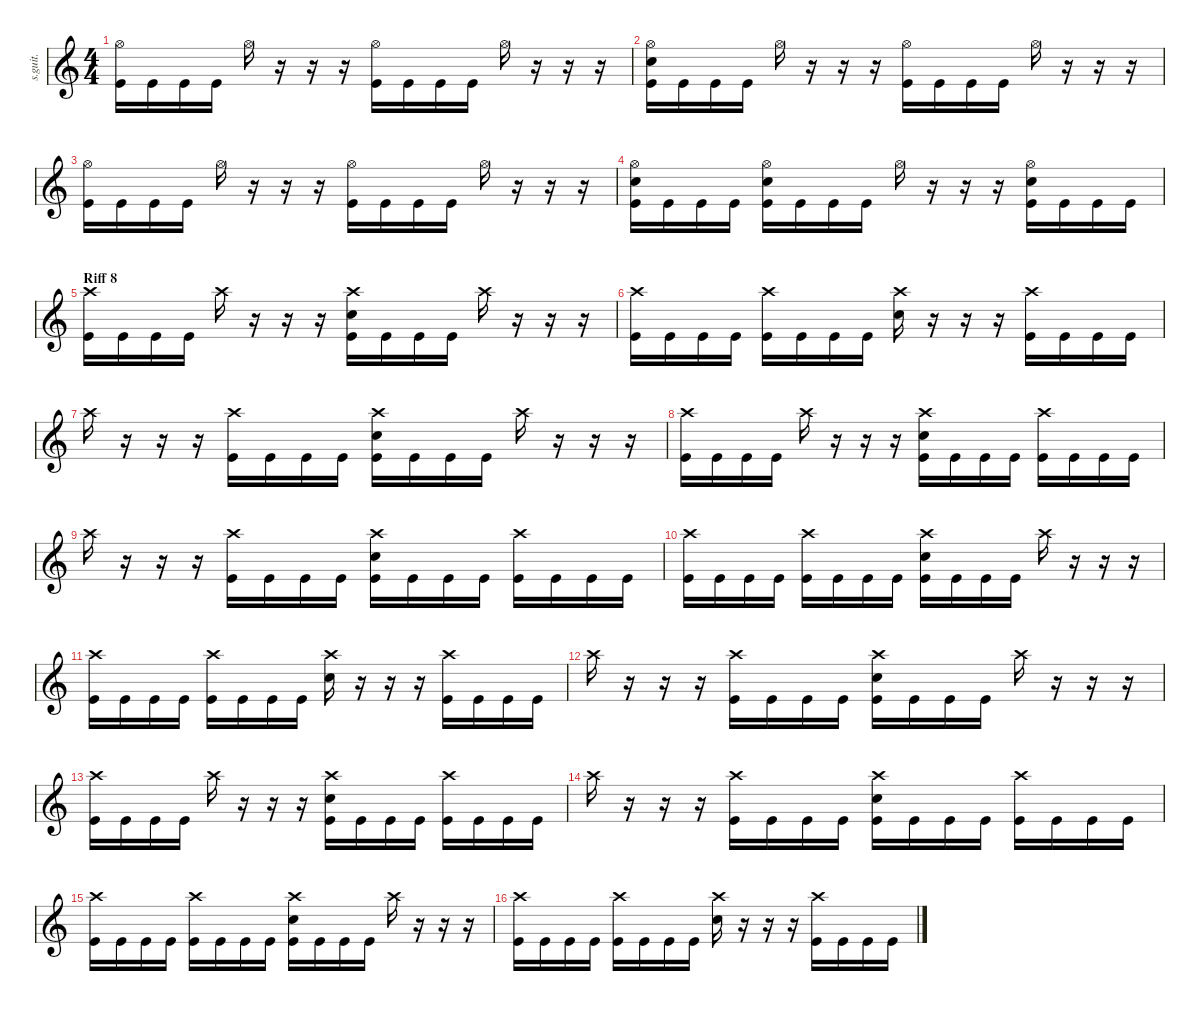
\defaultSystemsLayout 4
\hideDynamics
\bracketExtendMode nobrackets
\track ("Drumkit" "s.guit.") {instrument percussion}
\staff {score}
\articulation defaults
\ts (4 4)
\tempo (133 hide)
\clef g2
\ks c
("Hi-Hat (open)" "Kick (hit)").16{lyrics (0 "") lyrics (1 "") lyrics (2 "") lyrics (3 "") lyrics (4 "") dy f} "Kick (hit)".16{lyrics (0 "") lyrics (1 "") lyrics (2 "") lyrics (3 "") lyrics (4 "")} "Kick (hit)".16{lyrics (0 "") lyrics (1 "") lyrics (2 "") lyrics (3 "") lyrics (4 "")} "Kick (hit)".16{lyrics (0 "") lyrics (1 "") lyrics (2 "") lyrics (3 "") lyrics (4 "")} "Hi-Hat (open)".16{lyrics (0 "") lyrics (1 "") lyrics (2 "") lyrics (3 "") lyrics (4 "")} r.16 r.16 r.16 ("Hi-Hat (open)" "Kick (hit)").16{lyrics (0 "") lyrics (1 "") lyrics (2 "") lyrics (3 "") lyrics (4 "")} "Kick (hit)".16{lyrics (0 "") lyrics (1 "") lyrics (2 "") lyrics (3 "") lyrics (4 "")} "Kick (hit)".16{lyrics (0 "") lyrics (1 "") lyrics (2 "") lyrics (3 "") lyrics (4 "")} "Kick (hit)".16{lyrics (0 "") lyrics (1 "") lyrics (2 "") lyrics (3 "") lyrics (4 "")} "Hi-Hat (open)".16{lyrics (0 "") lyrics (1 "") lyrics (2 "") lyrics (3 "") lyrics (4 "")} r.16 r.16 r.16 |
("Hi-Hat (open)" "Snare (hit) 2" "Kick (hit)").16{lyrics (0 "") lyrics (1 "") lyrics (2 "") lyrics (3 "") lyrics (4 "")} "Kick (hit)".16{lyrics (0 "") lyrics (1 "") lyrics (2 "") lyrics (3 "") lyrics (4 "")} "Kick (hit)".16{lyrics (0 "") lyrics (1 "") lyrics (2 "") lyrics (3 "") lyrics (4 "")} "Kick (hit)".16{lyrics (0 "") lyrics (1 "") lyrics (2 "") lyrics (3 "") lyrics (4 "")} "Hi-Hat (open)".16{lyrics (0 "") lyrics (1 "") lyrics (2 "") lyrics (3 "") lyrics (4 "")} r.16 r.16 r.16 ("Hi-Hat (open)" "Kick (hit)").16{lyrics (0 "") lyrics (1 "") lyrics (2 "") lyrics (3 "") lyrics (4 "")} "Kick (hit)".16{lyrics (0 "") lyrics (1 "") lyrics (2 "") lyrics (3 "") lyrics (4 "")} "Kick (hit)".16{lyrics (0 "") lyrics (1 "") lyrics (2 "") lyrics (3 "") lyrics (4 "")} "Kick (hit)".16{lyrics (0 "") lyrics (1 "") lyrics (2 "") lyrics (3 "") lyrics (4 "")} "Hi-Hat (open)".16{lyrics (0 "") lyrics (1 "") lyrics (2 "") lyrics (3 "") lyrics (4 "")} r.16 r.16 r.16 |
("Hi-Hat (open)" "Kick (hit)").16{lyrics (0 "") lyrics (1 "") lyrics (2 "") lyrics (3 "") lyrics (4 "")} "Kick (hit)".16{lyrics (0 "") lyrics (1 "") lyrics (2 "") lyrics (3 "") lyrics (4 "")} "Kick (hit)".16{lyrics (0 "") lyrics (1 "") lyrics (2 "") lyrics (3 "") lyrics (4 "")} "Kick (hit)".16{lyrics (0 "") lyrics (1 "") lyrics (2 "") lyrics (3 "") lyrics (4 "")} "Hi-Hat (open)".16{lyrics (0 "") lyrics (1 "") lyrics (2 "") lyrics (3 "") lyrics (4 "")} r.16 r.16 r.16 ("Hi-Hat (open)" "Kick (hit)").16{lyrics (0 "") lyrics (1 "") lyrics (2 "") lyrics (3 "") lyrics (4 "")} "Kick (hit)".16{lyrics (0 "") lyrics (1 "") lyrics (2 "") lyrics (3 "") lyrics (4 "")} "Kick (hit)".16{lyrics (0 "") lyrics (1 "") lyrics (2 "") lyrics (3 "") lyrics (4 "")} "Kick (hit)".16{lyrics (0 "") lyrics (1 "") lyrics (2 "") lyrics (3 "") lyrics (4 "")} "Hi-Hat (open)".16{lyrics (0 "") lyrics (1 "") lyrics (2 "") lyrics (3 "") lyrics (4 "")} r.16 r.16 r.16 |
("Hi-Hat (open)" "Snare (hit) 2" "Kick (hit)").16{lyrics (0 "") lyrics (1 "") lyrics (2 "") lyrics (3 "") lyrics (4 "")} "Kick (hit)".16{lyrics (0 "") lyrics (1 "") lyrics (2 "") lyrics (3 "") lyrics (4 "")} "Kick (hit)".16{lyrics (0 "") lyrics (1 "") lyrics (2 "") lyrics (3 "") lyrics (4 "")} "Kick (hit)".16{lyrics (0 "") lyrics (1 "") lyrics (2 "") lyrics (3 "") lyrics (4 "")} ("Hi-Hat (open)" "Snare (hit) 2" "Kick (hit)").16{lyrics (0 "") lyrics (1 "") lyrics (2 "") lyrics (3 "") lyrics (4 "")} "Kick (hit)".16{lyrics (0 "") lyrics (1 "") lyrics (2 "") lyrics (3 "") lyrics (4 "")} "Kick (hit)".16{lyrics (0 "") lyrics (1 "") lyrics (2 "") lyrics (3 "") lyrics (4 "")} "Kick (hit)".16{lyrics (0 "") lyrics (1 "") lyrics (2 "") lyrics (3 "") lyrics (4 "")} "Hi-Hat (open)".16{lyrics (0 "") lyrics (1 "") lyrics (2 "") lyrics (3 "") lyrics (4 "")} r.16 r.16 r.16 ("Hi-Hat (open)" "Snare (hit) 2" "Kick (hit)").16{lyrics (0 "") lyrics (1 "") lyrics (2 "") lyrics (3 "") lyrics (4 "")} "Kick (hit)".16{lyrics (0 "") lyrics (1 "") lyrics (2 "") lyrics (3 "") lyrics (4 "")} "Kick (hit)".16{lyrics (0 "") lyrics (1 "") lyrics (2 "") lyrics (3 "") lyrics (4 "")} "Kick (hit)".16{lyrics (0 "") lyrics (1 "") lyrics (2 "") lyrics (3 "") lyrics (4 "")} |
\section ("" "Riff 8")
("Crash high (hit)" "Kick (hit)").16{lyrics (0 "") lyrics (1 "") lyrics (2 "") lyrics (3 "") lyrics (4 "")} "Kick (hit)".16{lyrics (0 "") lyrics (1 "") lyrics (2 "") lyrics (3 "") lyrics (4 "")} "Kick (hit)".16{lyrics (0 "") lyrics (1 "") lyrics (2 "") lyrics (3 "") lyrics (4 "")} "Kick (hit)".16{lyrics (0 "") lyrics (1 "") lyrics (2 "") lyrics (3 "") lyrics (4 "")} "Crash high (hit)".16{lyrics (0 "") lyrics (1 "") lyrics (2 "") lyrics (3 "") lyrics (4 "")} r.16 r.16 r.16 ("Crash high (hit)" "Snare (hit) 2" "Kick (hit)").16{lyrics (0 "") lyrics (1 "") lyrics (2 "") lyrics (3 "") lyrics (4 "")} "Kick (hit)".16{lyrics (0 "") lyrics (1 "") lyrics (2 "") lyrics (3 "") lyrics (4 "")} "Kick (hit)".16{lyrics (0 "") lyrics (1 "") lyrics (2 "") lyrics (3 "") lyrics (4 "")} "Kick (hit)".16{lyrics (0 "") lyrics (1 "") lyrics (2 "") lyrics (3 "") lyrics (4 "")} "Crash high (hit)".16{lyrics (0 "") lyrics (1 "") lyrics (2 "") lyrics (3 "") lyrics (4 "")} r.16 r.16 r.16 |
("Crash high (hit)" "Kick (hit)").16{lyrics (0 "") lyrics (1 "") lyrics (2 "") lyrics (3 "") lyrics (4 "")} "Kick (hit)".16{lyrics (0 "") lyrics (1 "") lyrics (2 "") lyrics (3 "") lyrics (4 "")} "Kick (hit)".16{lyrics (0 "") lyrics (1 "") lyrics (2 "") lyrics (3 "") lyrics (4 "")} "Kick (hit)".16{lyrics (0 "") lyrics (1 "") lyrics (2 "") lyrics (3 "") lyrics (4 "")} ("Crash high (hit)" "Kick (hit)").16{lyrics (0 "") lyrics (1 "") lyrics (2 "") lyrics (3 "") lyrics (4 "")} "Kick (hit)".16{lyrics (0 "") lyrics (1 "") lyrics (2 "") lyrics (3 "") lyrics (4 "")} "Kick (hit)".16{lyrics (0 "") lyrics (1 "") lyrics (2 "") lyrics (3 "") lyrics (4 "")} "Kick (hit)".16{lyrics (0 "") lyrics (1 "") lyrics (2 "") lyrics (3 "") lyrics (4 "")} ("Crash high (hit)" "Snare (hit) 2").16{lyrics (0 "") lyrics (1 "") lyrics (2 "") lyrics (3 "") lyrics (4 "")} r.16 r.16 r.16 ("Crash high (hit)" "Kick (hit)").16{lyrics (0 "") lyrics (1 "") lyrics (2 "") lyrics (3 "") lyrics (4 "")} "Kick (hit)".16{lyrics (0 "") lyrics (1 "") lyrics (2 "") lyrics (3 "") lyrics (4 "")} "Kick (hit)".16{lyrics (0 "") lyrics (1 "") lyrics (2 "") lyrics (3 "") lyrics (4 "")} "Kick (hit)".16{lyrics (0 "") lyrics (1 "") lyrics (2 "") lyrics (3 "") lyrics (4 "")} |
"Crash high (hit)".16{lyrics (0 "") lyrics (1 "") lyrics (2 "") lyrics (3 "") lyrics (4 "")} r.16 r.16 r.16 ("Crash high (hit)" "Kick (hit)").16{lyrics (0 "") lyrics (1 "") lyrics (2 "") lyrics (3 "") lyrics (4 "")} "Kick (hit)".16{lyrics (0 "") lyrics (1 "") lyrics (2 "") lyrics (3 "") lyrics (4 "")} "Kick (hit)".16{lyrics (0 "") lyrics (1 "") lyrics (2 "") lyrics (3 "") lyrics (4 "")} "Kick (hit)".16{lyrics (0 "") lyrics (1 "") lyrics (2 "") lyrics (3 "") lyrics (4 "")} ("Crash high (hit)" "Snare (hit) 2" "Kick (hit)").16{lyrics (0 "") lyrics (1 "") lyrics (2 "") lyrics (3 "") lyrics (4 "")} "Kick (hit)".16{lyrics (0 "") lyrics (1 "") lyrics (2 "") lyrics (3 "") lyrics (4 "")} "Kick (hit)".16{lyrics (0 "") lyrics (1 "") lyrics (2 "") lyrics (3 "") lyrics (4 "")} "Kick (hit)".16{lyrics (0 "") lyrics (1 "") lyrics (2 "") lyrics (3 "") lyrics (4 "")} "Crash high (hit)".16{lyrics (0 "") lyrics (1 "") lyrics (2 "") lyrics (3 "") lyrics (4 "")} r.16 r.16 r.16 |
("Crash high (hit)" "Kick (hit)").16{lyrics (0 "") lyrics (1 "") lyrics (2 "") lyrics (3 "") lyrics (4 "")} "Kick (hit)".16{lyrics (0 "") lyrics (1 "") lyrics (2 "") lyrics (3 "") lyrics (4 "")} "Kick (hit)".16{lyrics (0 "") lyrics (1 "") lyrics (2 "") lyrics (3 "") lyrics (4 "")} "Kick (hit)".16{lyrics (0 "") lyrics (1 "") lyrics (2 "") lyrics (3 "") lyrics (4 "")} "Crash high (hit)".16{lyrics (0 "") lyrics (1 "") lyrics (2 "") lyrics (3 "") lyrics (4 "")} r.16 r.16 r.16 ("Crash high (hit)" "Snare (hit) 2" "Kick (hit)").16{lyrics (0 "") lyrics (1 "") lyrics (2 "") lyrics (3 "") lyrics (4 "")} "Kick (hit)".16{lyrics (0 "") lyrics (1 "") lyrics (2 "") lyrics (3 "") lyrics (4 "")} "Kick (hit)".16{lyrics (0 "") lyrics (1 "") lyrics (2 "") lyrics (3 "") lyrics (4 "")} "Kick (hit)".16{lyrics (0 "") lyrics (1 "") lyrics (2 "") lyrics (3 "") lyrics (4 "")} ("Crash high (hit)" "Kick (hit)").16{lyrics (0 "") lyrics (1 "") lyrics (2 "") lyrics (3 "") lyrics (4 "")} "Kick (hit)".16{lyrics (0 "") lyrics (1 "") lyrics (2 "") lyrics (3 "") lyrics (4 "")} "Kick (hit)".16{lyrics (0 "") lyrics (1 "") lyrics (2 "") lyrics (3 "") lyrics (4 "")} "Kick (hit)".16{lyrics (0 "") lyrics (1 "") lyrics (2 "") lyrics (3 "") lyrics (4 "")} |
"Crash high (hit)".16{lyrics (0 "") lyrics (1 "") lyrics (2 "") lyrics (3 "") lyrics (4 "")} r.16 r.16 r.16 ("Crash high (hit)" "Kick (hit)").16{lyrics (0 "") lyrics (1 "") lyrics (2 "") lyrics (3 "") lyrics (4 "")} "Kick (hit)".16{lyrics (0 "") lyrics (1 "") lyrics (2 "") lyrics (3 "") lyrics (4 "")} "Kick (hit)".16{lyrics (0 "") lyrics (1 "") lyrics (2 "") lyrics (3 "") lyrics (4 "")} "Kick (hit)".16{lyrics (0 "") lyrics (1 "") lyrics (2 "") lyrics (3 "") lyrics (4 "")} ("Crash high (hit)" "Snare (hit) 2" "Kick (hit)").16{lyrics (0 "") lyrics (1 "") lyrics (2 "") lyrics (3 "") lyrics (4 "")} "Kick (hit)".16{lyrics (0 "") lyrics (1 "") lyrics (2 "") lyrics (3 "") lyrics (4 "")} "Kick (hit)".16{lyrics (0 "") lyrics (1 "") lyrics (2 "") lyrics (3 "") lyrics (4 "")} "Kick (hit)".16{lyrics (0 "") lyrics (1 "") lyrics (2 "") lyrics (3 "") lyrics (4 "")} ("Crash high (hit)" "Kick (hit)").16{lyrics (0 "") lyrics (1 "") lyrics (2 "") lyrics (3 "") lyrics (4 "")} "Kick (hit)".16{lyrics (0 "") lyrics (1 "") lyrics (2 "") lyrics (3 "") lyrics (4 "")} "Kick (hit)".16{lyrics (0 "") lyrics (1 "") lyrics (2 "") lyrics (3 "") lyrics (4 "")} "Kick (hit)".16{lyrics (0 "") lyrics (1 "") lyrics (2 "") lyrics (3 "") lyrics (4 "")} |
("Crash high (hit)" "Kick (hit)").16{lyrics (0 "") lyrics (1 "") lyrics (2 "") lyrics (3 "") lyrics (4 "")} "Kick (hit)".16{lyrics (0 "") lyrics (1 "") lyrics (2 "") lyrics (3 "") lyrics (4 "")} "Kick (hit)".16{lyrics (0 "") lyrics (1 "") lyrics (2 "") lyrics (3 "") lyrics (4 "")} "Kick (hit)".16{lyrics (0 "") lyrics (1 "") lyrics (2 "") lyrics (3 "") lyrics (4 "")} ("Crash high (hit)" "Kick (hit)").16{lyrics (0 "") lyrics (1 "") lyrics (2 "") lyrics (3 "") lyrics (4 "")} "Kick (hit)".16{lyrics (0 "") lyrics (1 "") lyrics (2 "") lyrics (3 "") lyrics (4 "")} "Kick (hit)".16{lyrics (0 "") lyrics (1 "") lyrics (2 "") lyrics (3 "") lyrics (4 "")} "Kick (hit)".16{lyrics (0 "") lyrics (1 "") lyrics (2 "") lyrics (3 "") lyrics (4 "")} ("Crash high (hit)" "Snare (hit) 2" "Kick (hit)").16{lyrics (0 "") lyrics (1 "") lyrics (2 "") lyrics (3 "") lyrics (4 "")} "Kick (hit)".16{lyrics (0 "") lyrics (1 "") lyrics (2 "") lyrics (3 "") lyrics (4 "")} "Kick (hit)".16{lyrics (0 "") lyrics (1 "") lyrics (2 "") lyrics (3 "") lyrics (4 "")} "Kick (hit)".16{lyrics (0 "") lyrics (1 "") lyrics (2 "") lyrics (3 "") lyrics (4 "")} "Crash high (hit)".16{lyrics (0 "") lyrics (1 "") lyrics (2 "") lyrics (3 "") lyrics (4 "")} r.16 r.16 r.16 |
("Crash high (hit)" "Kick (hit)").16{lyrics (0 "") lyrics (1 "") lyrics (2 "") lyrics (3 "") lyrics (4 "")} "Kick (hit)".16{lyrics (0 "") lyrics (1 "") lyrics (2 "") lyrics (3 "") lyrics (4 "")} "Kick (hit)".16{lyrics (0 "") lyrics (1 "") lyrics (2 "") lyrics (3 "") lyrics (4 "")} "Kick (hit)".16{lyrics (0 "") lyrics (1 "") lyrics (2 "") lyrics (3 "") lyrics (4 "")} ("Crash high (hit)" "Kick (hit)").16{lyrics (0 "") lyrics (1 "") lyrics (2 "") lyrics (3 "") lyrics (4 "")} "Kick (hit)".16{lyrics (0 "") lyrics (1 "") lyrics (2 "") lyrics (3 "") lyrics (4 "")} "Kick (hit)".16{lyrics (0 "") lyrics (1 "") lyrics (2 "") lyrics (3 "") lyrics (4 "")} "Kick (hit)".16{lyrics (0 "") lyrics (1 "") lyrics (2 "") lyrics (3 "") lyrics (4 "")} ("Crash high (hit)" "Snare (hit) 2").16{lyrics (0 "") lyrics (1 "") lyrics (2 "") lyrics (3 "") lyrics (4 "")} r.16 r.16 r.16 ("Crash high (hit)" "Kick (hit)").16{lyrics (0 "") lyrics (1 "") lyrics (2 "") lyrics (3 "") lyrics (4 "")} "Kick (hit)".16{lyrics (0 "") lyrics (1 "") lyrics (2 "") lyrics (3 "") lyrics (4 "")} "Kick (hit)".16{lyrics (0 "") lyrics (1 "") lyrics (2 "") lyrics (3 "") lyrics (4 "")} "Kick (hit)".16{lyrics (0 "") lyrics (1 "") lyrics (2 "") lyrics (3 "") lyrics (4 "")} |
"Crash high (hit)".16{lyrics (0 "") lyrics (1 "") lyrics (2 "") lyrics (3 "") lyrics (4 "")} r.16 r.16 r.16 ("Crash high (hit)" "Kick (hit)").16{lyrics (0 "") lyrics (1 "") lyrics (2 "") lyrics (3 "") lyrics (4 "")} "Kick (hit)".16{lyrics (0 "") lyrics (1 "") lyrics (2 "") lyrics (3 "") lyrics (4 "")} "Kick (hit)".16{lyrics (0 "") lyrics (1 "") lyrics (2 "") lyrics (3 "") lyrics (4 "")} "Kick (hit)".16{lyrics (0 "") lyrics (1 "") lyrics (2 "") lyrics (3 "") lyrics (4 "")} ("Crash high (hit)" "Snare (hit) 2" "Kick (hit)").16{lyrics (0 "") lyrics (1 "") lyrics (2 "") lyrics (3 "") lyrics (4 "")} "Kick (hit)".16{lyrics (0 "") lyrics (1 "") lyrics (2 "") lyrics (3 "") lyrics (4 "")} "Kick (hit)".16{lyrics (0 "") lyrics (1 "") lyrics (2 "") lyrics (3 "") lyrics (4 "")} "Kick (hit)".16{lyrics (0 "") lyrics (1 "") lyrics (2 "") lyrics (3 "") lyrics (4 "")} "Crash high (hit)".16{lyrics (0 "") lyrics (1 "") lyrics (2 "") lyrics (3 "") lyrics (4 "")} r.16 r.16 r.16 |
("Crash high (hit)" "Kick (hit)").16{lyrics (0 "") lyrics (1 "") lyrics (2 "") lyrics (3 "") lyrics (4 "")} "Kick (hit)".16{lyrics (0 "") lyrics (1 "") lyrics (2 "") lyrics (3 "") lyrics (4 "")} "Kick (hit)".16{lyrics (0 "") lyrics (1 "") lyrics (2 "") lyrics (3 "") lyrics (4 "")} "Kick (hit)".16{lyrics (0 "") lyrics (1 "") lyrics (2 "") lyrics (3 "") lyrics (4 "")} "Crash high (hit)".16{lyrics (0 "") lyrics (1 "") lyrics (2 "") lyrics (3 "") lyrics (4 "")} r.16 r.16 r.16 ("Crash high (hit)" "Snare (hit) 2" "Kick (hit)").16{lyrics (0 "") lyrics (1 "") lyrics (2 "") lyrics (3 "") lyrics (4 "")} "Kick (hit)".16{lyrics (0 "") lyrics (1 "") lyrics (2 "") lyrics (3 "") lyrics (4 "")} "Kick (hit)".16{lyrics (0 "") lyrics (1 "") lyrics (2 "") lyrics (3 "") lyrics (4 "")} "Kick (hit)".16{lyrics (0 "") lyrics (1 "") lyrics (2 "") lyrics (3 "") lyrics (4 "")} ("Crash high (hit)" "Kick (hit)").16{lyrics (0 "") lyrics (1 "") lyrics (2 "") lyrics (3 "") lyrics (4 "")} "Kick (hit)".16{lyrics (0 "") lyrics (1 "") lyrics (2 "") lyrics (3 "") lyrics (4 "")} "Kick (hit)".16{lyrics (0 "") lyrics (1 "") lyrics (2 "") lyrics (3 "") lyrics (4 "")} "Kick (hit)".16{lyrics (0 "") lyrics (1 "") lyrics (2 "") lyrics (3 "") lyrics (4 "")} |
"Crash high (hit)".16{lyrics (0 "") lyrics (1 "") lyrics (2 "") lyrics (3 "") lyrics (4 "")} r.16 r.16 r.16 ("Crash high (hit)" "Kick (hit)").16{lyrics (0 "") lyrics (1 "") lyrics (2 "") lyrics (3 "") lyrics (4 "")} "Kick (hit)".16{lyrics (0 "") lyrics (1 "") lyrics (2 "") lyrics (3 "") lyrics (4 "")} "Kick (hit)".16{lyrics (0 "") lyrics (1 "") lyrics (2 "") lyrics (3 "") lyrics (4 "")} "Kick (hit)".16{lyrics (0 "") lyrics (1 "") lyrics (2 "") lyrics (3 "") lyrics (4 "")} ("Crash high (hit)" "Snare (hit) 2" "Kick (hit)").16{lyrics (0 "") lyrics (1 "") lyrics (2 "") lyrics (3 "") lyrics (4 "")} "Kick (hit)".16{lyrics (0 "") lyrics (1 "") lyrics (2 "") lyrics (3 "") lyrics (4 "")} "Kick (hit)".16{lyrics (0 "") lyrics (1 "") lyrics (2 "") lyrics (3 "") lyrics (4 "")} "Kick (hit)".16{lyrics (0 "") lyrics (1 "") lyrics (2 "") lyrics (3 "") lyrics (4 "")} ("Crash high (hit)" "Kick (hit)").16{lyrics (0 "") lyrics (1 "") lyrics (2 "") lyrics (3 "") lyrics (4 "")} "Kick (hit)".16{lyrics (0 "") lyrics (1 "") lyrics (2 "") lyrics (3 "") lyrics (4 "")} "Kick (hit)".16{lyrics (0 "") lyrics (1 "") lyrics (2 "") lyrics (3 "") lyrics (4 "")} "Kick (hit)".16{lyrics (0 "") lyrics (1 "") lyrics (2 "") lyrics (3 "") lyrics (4 "")} |
("Crash high (hit)" "Kick (hit)").16{lyrics (0 "") lyrics (1 "") lyrics (2 "") lyrics (3 "") lyrics (4 "")} "Kick (hit)".16{lyrics (0 "") lyrics (1 "") lyrics (2 "") lyrics (3 "") lyrics (4 "")} "Kick (hit)".16{lyrics (0 "") lyrics (1 "") lyrics (2 "") lyrics (3 "") lyrics (4 "")} "Kick (hit)".16{lyrics (0 "") lyrics (1 "") lyrics (2 "") lyrics (3 "") lyrics (4 "")} ("Crash high (hit)" "Kick (hit)").16{lyrics (0 "") lyrics (1 "") lyrics (2 "") lyrics (3 "") lyrics (4 "")} "Kick (hit)".16{lyrics (0 "") lyrics (1 "") lyrics (2 "") lyrics (3 "") lyrics (4 "")} "Kick (hit)".16{lyrics (0 "") lyrics (1 "") lyrics (2 "") lyrics (3 "") lyrics (4 "")} "Kick (hit)".16{lyrics (0 "") lyrics (1 "") lyrics (2 "") lyrics (3 "") lyrics (4 "")} ("Crash high (hit)" "Snare (hit) 2" "Kick (hit)").16{lyrics (0 "") lyrics (1 "") lyrics (2 "") lyrics (3 "") lyrics (4 "")} "Kick (hit)".16{lyrics (0 "") lyrics (1 "") lyrics (2 "") lyrics (3 "") lyrics (4 "")} "Kick (hit)".16{lyrics (0 "") lyrics (1 "") lyrics (2 "") lyrics (3 "") lyrics (4 "")} "Kick (hit)".16{lyrics (0 "") lyrics (1 "") lyrics (2 "") lyrics (3 "") lyrics (4 "")} "Crash high (hit)".16{lyrics (0 "") lyrics (1 "") lyrics (2 "") lyrics (3 "") lyrics (4 "")} r.16 r.16 r.16 |
("Crash high (hit)" "Kick (hit)").16{lyrics (0 "") lyrics (1 "") lyrics (2 "") lyrics (3 "") lyrics (4 "")} "Kick (hit)".16{lyrics (0 "") lyrics (1 "") lyrics (2 "") lyrics (3 "") lyrics (4 "")} "Kick (hit)".16{lyrics (0 "") lyrics (1 "") lyrics (2 "") lyrics (3 "") lyrics (4 "")} "Kick (hit)".16{lyrics (0 "") lyrics (1 "") lyrics (2 "") lyrics (3 "") lyrics (4 "")} ("Crash high (hit)" "Kick (hit)").16{lyrics (0 "") lyrics (1 "") lyrics (2 "") lyrics (3 "") lyrics (4 "")} "Kick (hit)".16{lyrics (0 "") lyrics (1 "") lyrics (2 "") lyrics (3 "") lyrics (4 "")} "Kick (hit)".16{lyrics (0 "") lyrics (1 "") lyrics (2 "") lyrics (3 "") lyrics (4 "")} "Kick (hit)".16{lyrics (0 "") lyrics (1 "") lyrics (2 "") lyrics (3 "") lyrics (4 "")} ("Crash high (hit)" "Snare (hit) 2").16{lyrics (0 "") lyrics (1 "") lyrics (2 "") lyrics (3 "") lyrics (4 "")} r.16 r.16 r.16 ("Crash high (hit)" "Kick (hit)").16{lyrics (0 "") lyrics (1 "") lyrics (2 "") lyrics (3 "") lyrics (4 "")} "Kick (hit)".16{lyrics (0 "") lyrics (1 "") lyrics (2 "") lyrics (3 "") lyrics (4 "")} "Kick (hit)".16{lyrics (0 "") lyrics (1 "") lyrics (2 "") lyrics (3 "") lyrics (4 "")} "Kick (hit)".16{lyrics (0 "") lyrics (1 "") lyrics (2 "") lyrics (3 "") lyrics (4 "")}
